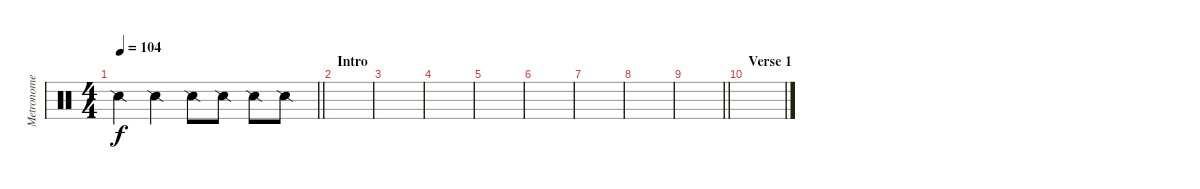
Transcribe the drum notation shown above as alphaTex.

\track ("Metronome" "Metronome") {instrument percussion}
\staff {score}
\articulation defaults
\ts (4 4)
\tempo 104
\clef neutral
\barLineRight lightlight
\ks c "Snare (side stick) 2".4{dy f} "Snare (side stick) 2".4 "Snare (side stick) 2".8 "Snare (side stick) 2".8 "Snare (side stick) 2".8 "Snare (side stick) 2".8
|
\section ("" "Intro")
|
|
|
|
|
|
|
\barLineRight lightlight
|
\section ("" "Verse 1")
